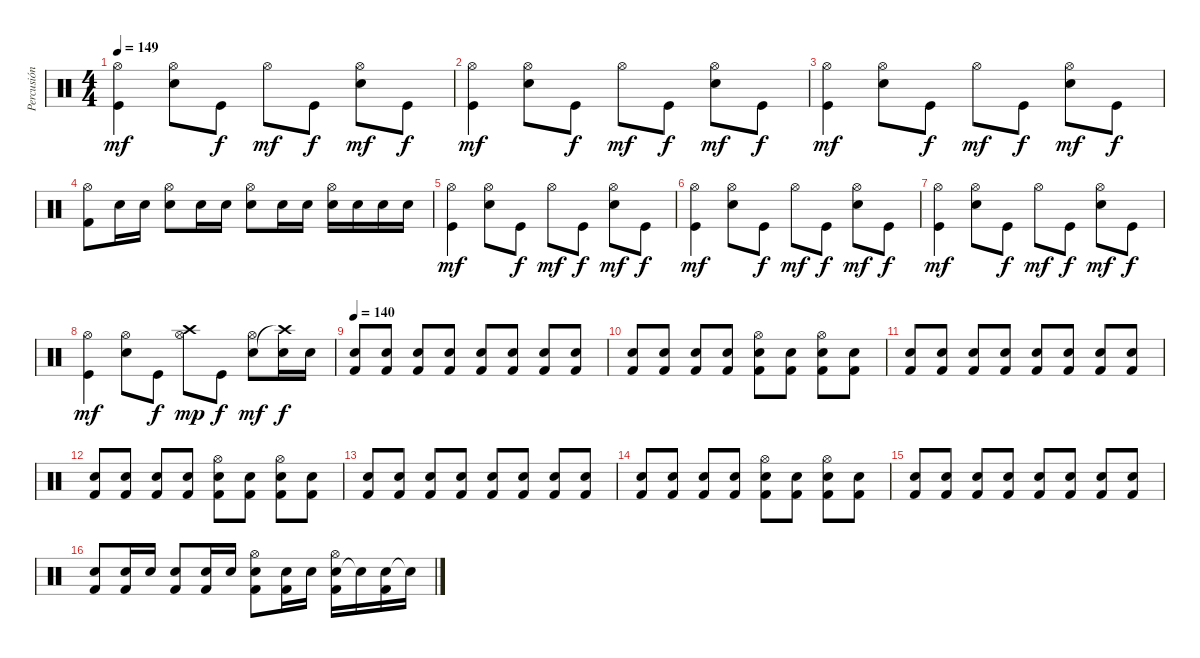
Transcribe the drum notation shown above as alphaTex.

\track ("Percusión" "Percusión") {instrument percussion}
\staff {score}
\articulation defaults
\ts (4 4)
\tempo 149
\clef neutral
\ks c
("Hi-Hat (open)" "Kick (hit)").4{dy mf} ("Hi-Hat (open)" "Electric Snare (hit)").8 "Kick (hit)".8{dy f} "Hi-Hat (open)".8{dy mf} "Kick (hit)".8{dy f} ("Hi-Hat (open)" "Electric Snare (hit)").8{dy mf} "Kick (hit)".8{dy f} |
("Hi-Hat (open)" "Kick (hit)").4{dy mf} ("Hi-Hat (open)" "Electric Snare (hit)").8 "Kick (hit)".8{dy f} "Hi-Hat (open)".8{dy mf} "Kick (hit)".8{dy f} ("Hi-Hat (open)" "Electric Snare (hit)").8{dy mf} "Kick (hit)".8{dy f} |
("Hi-Hat (open)" "Kick (hit)").4{dy mf} ("Hi-Hat (open)" "Electric Snare (hit)").8 "Kick (hit)".8{dy f} "Hi-Hat (open)".8{dy mf} "Kick (hit)".8{dy f} ("Hi-Hat (open)" "Electric Snare (hit)").8{dy mf} "Kick (hit)".8{dy f} |
("Kick (hit) 2" "Hi-Hat (open)").8 "Electric Snare (hit)".16 "Electric Snare (hit)".16 ("Electric Snare (hit)" "Hi-Hat (open)").8 "Electric Snare (hit)".16 "Electric Snare (hit)".16 ("Electric Snare (hit)" "Hi-Hat (open)").8 "Electric Snare (hit)".16 "Electric Snare (hit)".16 ("Electric Snare (hit)" "Hi-Hat (open)").16 "Electric Snare (hit)".16 "Electric Snare (hit)".16 "Electric Snare (hit)".16 |
("Hi-Hat (open)" "Kick (hit)").4{dy mf} ("Hi-Hat (open)" "Electric Snare (hit)").8 "Kick (hit)".8{dy f} "Hi-Hat (open)".8{dy mf} "Kick (hit)".8{dy f} ("Hi-Hat (open)" "Electric Snare (hit)").8{dy mf} "Kick (hit)".8{dy f} |
("Hi-Hat (open)" "Kick (hit)").4{dy mf} ("Hi-Hat (open)" "Electric Snare (hit)").8 "Kick (hit)".8{dy f} "Hi-Hat (open)".8{dy mf} "Kick (hit)".8{dy f} ("Hi-Hat (open)" "Electric Snare (hit)").8{dy mf} "Kick (hit)".8{dy f} |
("Hi-Hat (open)" "Kick (hit)").4{dy mf} ("Hi-Hat (open)" "Electric Snare (hit)").8 "Kick (hit)".8{dy f} "Hi-Hat (open)".8{dy mf} "Kick (hit)".8{dy f} ("Hi-Hat (open)" "Electric Snare (hit)").8{dy mf} "Kick (hit)".8{dy f} |
("Hi-Hat (open)" "Kick (hit)").4{dy mf} ("Hi-Hat (open)" "Electric Snare (hit)").8 "Kick (hit)".8{dy f} ("Hi-Hat (open)" "Crash high (hit)").8{dy mp} "Kick (hit)".8{dy f} ("Hi-Hat (open)" "Electric Snare (hit)").8{dy mf} ("Electric Snare (hit)" "Crash high (hit)"{t}).16{dy f} "Electric Snare (hit)".16 |
\tempo 140
("Kick (hit) 2" "Electric Snare (hit)").8 ("Kick (hit) 2" "Electric Snare (hit)").8 ("Kick (hit) 2" "Electric Snare (hit)").8 ("Kick (hit) 2" "Electric Snare (hit)").8 ("Kick (hit) 2" "Electric Snare (hit)").8 ("Kick (hit) 2" "Electric Snare (hit)").8 ("Kick (hit) 2" "Electric Snare (hit)").8 ("Kick (hit) 2" "Electric Snare (hit)").8 |
("Kick (hit) 2" "Electric Snare (hit)").8 ("Kick (hit) 2" "Electric Snare (hit)").8 ("Kick (hit) 2" "Electric Snare (hit)").8 ("Kick (hit) 2" "Electric Snare (hit)").8 ("Kick (hit) 2" "Electric Snare (hit)" "Hi-Hat (open)").8 ("Kick (hit) 2" "Electric Snare (hit)").8 ("Kick (hit) 2" "Electric Snare (hit)" "Hi-Hat (open)").8 ("Kick (hit) 2" "Electric Snare (hit)").8 |
("Kick (hit) 2" "Electric Snare (hit)").8 ("Kick (hit) 2" "Electric Snare (hit)").8 ("Kick (hit) 2" "Electric Snare (hit)").8 ("Kick (hit) 2" "Electric Snare (hit)").8 ("Kick (hit) 2" "Electric Snare (hit)").8 ("Kick (hit) 2" "Electric Snare (hit)").8 ("Kick (hit) 2" "Electric Snare (hit)").8 ("Kick (hit) 2" "Electric Snare (hit)").8 |
("Kick (hit) 2" "Electric Snare (hit)").8 ("Kick (hit) 2" "Electric Snare (hit)").8 ("Kick (hit) 2" "Electric Snare (hit)").8 ("Kick (hit) 2" "Electric Snare (hit)").8 ("Kick (hit) 2" "Electric Snare (hit)" "Hi-Hat (open)").8 ("Kick (hit) 2" "Electric Snare (hit)").8 ("Kick (hit) 2" "Electric Snare (hit)" "Hi-Hat (open)").8 ("Kick (hit) 2" "Electric Snare (hit)").8 |
("Kick (hit) 2" "Electric Snare (hit)").8 ("Kick (hit) 2" "Electric Snare (hit)").8 ("Kick (hit) 2" "Electric Snare (hit)").8 ("Kick (hit) 2" "Electric Snare (hit)").8 ("Kick (hit) 2" "Electric Snare (hit)").8 ("Kick (hit) 2" "Electric Snare (hit)").8 ("Kick (hit) 2" "Electric Snare (hit)").8 ("Kick (hit) 2" "Electric Snare (hit)").8 |
("Kick (hit) 2" "Electric Snare (hit)").8 ("Kick (hit) 2" "Electric Snare (hit)").8 ("Kick (hit) 2" "Electric Snare (hit)").8 ("Kick (hit) 2" "Electric Snare (hit)").8 ("Kick (hit) 2" "Electric Snare (hit)" "Hi-Hat (open)").8 ("Kick (hit) 2" "Electric Snare (hit)").8 ("Kick (hit) 2" "Electric Snare (hit)" "Hi-Hat (open)").8 ("Kick (hit) 2" "Electric Snare (hit)").8 |
("Kick (hit) 2" "Electric Snare (hit)").8 ("Kick (hit) 2" "Electric Snare (hit)").8 ("Kick (hit) 2" "Electric Snare (hit)").8 ("Kick (hit) 2" "Electric Snare (hit)").8 ("Kick (hit) 2" "Electric Snare (hit)").8 ("Kick (hit) 2" "Electric Snare (hit)").8 ("Kick (hit) 2" "Electric Snare (hit)").8 ("Kick (hit) 2" "Electric Snare (hit)").8 |
("Kick (hit) 2" "Electric Snare (hit)").8 ("Electric Snare (hit)" "Kick (hit) 2").16 "Electric Snare (hit)".16 ("Electric Snare (hit)" "Kick (hit) 2").8 ("Electric Snare (hit)" "Kick (hit) 2").16 "Electric Snare (hit)".16 ("Electric Snare (hit)" "Kick (hit) 2" "Hi-Hat (open)").8 ("Electric Snare (hit)" "Kick (hit) 2").16 "Electric Snare (hit)".16 ("Electric Snare (hit)" "Kick (hit) 2" "Hi-Hat (open)").16 "Electric Snare (hit)"{t}.16 ("Electric Snare (hit)" "Kick (hit) 2").16 "Electric Snare (hit)"{t}.16
